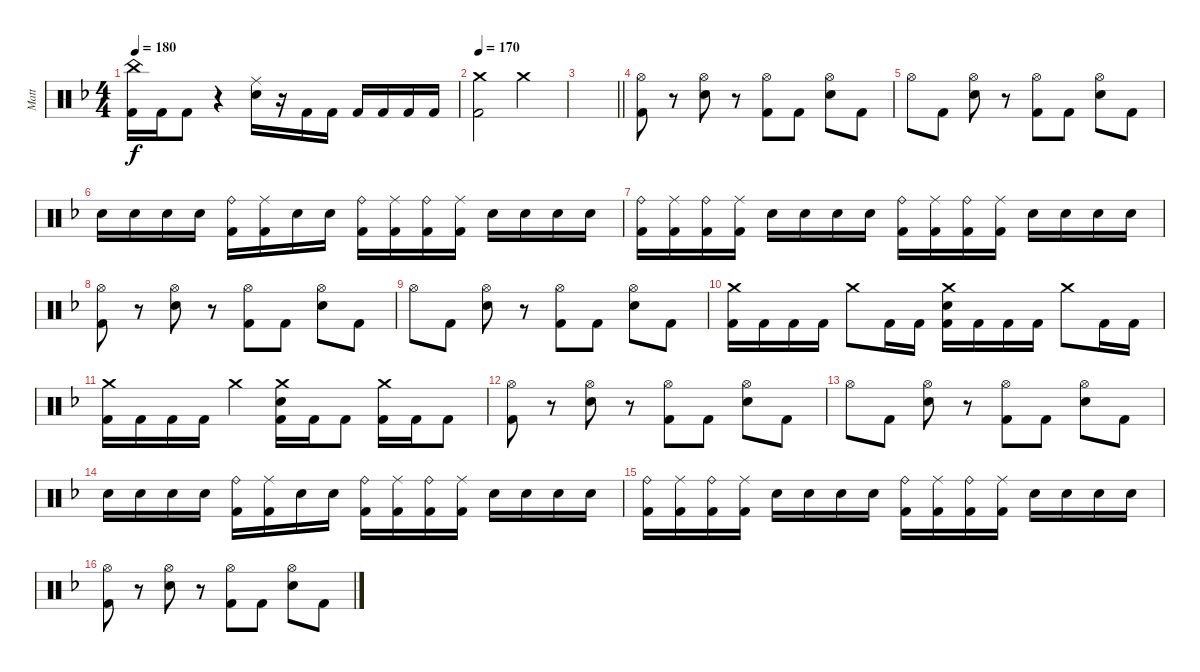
\track ("Matt" "Matt") {instrument percussion}
\staff {score}
\articulation defaults
\ts (4 4)
\tempo 180
\clef neutral
\ks f
("China (hit)" "Kick (hit) 2").16{dy f} "Kick (hit) 2".16 "Kick (hit) 2".8 r.4 ("Ride (middle)" "Electric Snare (hit)").16 r.16 "Kick (hit) 2".16 "Kick (hit) 2".16 "Kick (hit) 2".16 "Kick (hit) 2".16 "Kick (hit) 2".16 "Kick (hit) 2".16 |
\tempo 170
("Crash medium (hit)" "Kick (hit) 2").2 "Crash medium (hit)".2 |
\barLineRight lightlight
|
("Hi-Hat (open)" "Kick (hit) 2").8 r.8 ("Hi-Hat (open)" "Electric Snare (hit)").8 r.8 ("Hi-Hat (open)" "Kick (hit) 2").8 "Kick (hit) 2".8 ("Hi-Hat (open)" "Electric Snare (hit)").8 "Kick (hit) 2".8 |
"Hi-Hat (open)".8 "Kick (hit) 2".8 ("Hi-Hat (open)" "Electric Snare (hit)").8 r.8 ("Hi-Hat (open)" "Kick (hit) 2").8 "Kick (hit) 2".8 ("Hi-Hat (open)" "Electric Snare (hit)").8 "Kick (hit) 2".8 |
"Electric Snare (hit)".16 "Electric Snare (hit)".16 "Electric Snare (hit)".16 "Electric Snare (hit)".16 ("Ride (bell)" "Kick (hit) 2").16 ("Ride (middle)" "Kick (hit) 2").16 "Electric Snare (hit)".16 "Electric Snare (hit)".16 ("Ride (bell)" "Kick (hit) 2").16 ("Ride (middle)" "Kick (hit) 2").16 ("Ride (bell)" "Kick (hit) 2").16 ("Ride (middle)" "Kick (hit) 2").16 "Electric Snare (hit)".16 "Electric Snare (hit)".16 "Electric Snare (hit)".16 "Electric Snare (hit)".16 |
("Ride (bell)" "Kick (hit) 2").16 ("Ride (middle)" "Kick (hit) 2").16 ("Ride (bell)" "Kick (hit) 2").16 ("Ride (middle)" "Kick (hit) 2").16 "Electric Snare (hit)".16 "Electric Snare (hit)".16 "Electric Snare (hit)".16 "Electric Snare (hit)".16 ("Ride (bell)" "Kick (hit) 2").16 ("Ride (middle)" "Kick (hit) 2").16 ("Ride (bell)" "Kick (hit) 2").16 ("Ride (middle)" "Kick (hit) 2").16 "Electric Snare (hit)".16 "Electric Snare (hit)".16 "Electric Snare (hit)".16 "Electric Snare (hit)".16 |
("Hi-Hat (open)" "Kick (hit) 2").8 r.8 ("Hi-Hat (open)" "Electric Snare (hit)").8 r.8 ("Hi-Hat (open)" "Kick (hit) 2").8 "Kick (hit) 2".8 ("Hi-Hat (open)" "Electric Snare (hit)").8 "Kick (hit) 2".8 |
"Hi-Hat (open)".8 "Kick (hit) 2".8 ("Hi-Hat (open)" "Electric Snare (hit)").8 r.8 ("Hi-Hat (open)" "Kick (hit) 2").8 "Kick (hit) 2".8 ("Hi-Hat (open)" "Electric Snare (hit)").8 "Kick (hit) 2".8 |
("Crash medium (hit)" "Kick (hit) 2").16 "Kick (hit) 2".16 "Kick (hit) 2".16 "Kick (hit) 2".16 "Crash medium (hit)".8 "Kick (hit) 2".16 "Kick (hit) 2".16 ("Crash medium (hit)" "Electric Snare (hit)" "Kick (hit) 2").16 "Kick (hit) 2".16 "Kick (hit) 2".16 "Kick (hit) 2".16 "Crash medium (hit)".8 "Kick (hit) 2".16 "Kick (hit) 2".16 |
("Crash medium (hit)" "Kick (hit) 2").16 "Kick (hit) 2".16 "Kick (hit) 2".16 "Kick (hit) 2".16 "Crash medium (hit)".4 ("Crash medium (hit)" "Electric Snare (hit)" "Kick (hit) 2").16 "Kick (hit) 2".16 "Kick (hit) 2".8 ("Crash medium (hit)" "Kick (hit) 2").16 "Kick (hit) 2".16 "Kick (hit) 2".8 |
("Hi-Hat (open)" "Kick (hit) 2").8 r.8 ("Hi-Hat (open)" "Electric Snare (hit)").8 r.8 ("Hi-Hat (open)" "Kick (hit) 2").8 "Kick (hit) 2".8 ("Hi-Hat (open)" "Electric Snare (hit)").8 "Kick (hit) 2".8 |
"Hi-Hat (open)".8 "Kick (hit) 2".8 ("Hi-Hat (open)" "Electric Snare (hit)").8 r.8 ("Hi-Hat (open)" "Kick (hit) 2").8 "Kick (hit) 2".8 ("Hi-Hat (open)" "Electric Snare (hit)").8 "Kick (hit) 2".8 |
"Electric Snare (hit)".16 "Electric Snare (hit)".16 "Electric Snare (hit)".16 "Electric Snare (hit)".16 ("Ride (bell)" "Kick (hit) 2").16 ("Ride (middle)" "Kick (hit) 2").16 "Electric Snare (hit)".16 "Electric Snare (hit)".16 ("Ride (bell)" "Kick (hit) 2").16 ("Ride (middle)" "Kick (hit) 2").16 ("Ride (bell)" "Kick (hit) 2").16 ("Ride (middle)" "Kick (hit) 2").16 "Electric Snare (hit)".16 "Electric Snare (hit)".16 "Electric Snare (hit)".16 "Electric Snare (hit)".16 |
("Ride (bell)" "Kick (hit) 2").16 ("Ride (middle)" "Kick (hit) 2").16 ("Ride (bell)" "Kick (hit) 2").16 ("Ride (middle)" "Kick (hit) 2").16 "Electric Snare (hit)".16 "Electric Snare (hit)".16 "Electric Snare (hit)".16 "Electric Snare (hit)".16 ("Ride (bell)" "Kick (hit) 2").16 ("Ride (middle)" "Kick (hit) 2").16 ("Ride (bell)" "Kick (hit) 2").16 ("Ride (middle)" "Kick (hit) 2").16 "Electric Snare (hit)".16 "Electric Snare (hit)".16 "Electric Snare (hit)".16 "Electric Snare (hit)".16 |
("Hi-Hat (open)" "Kick (hit) 2").8 r.8 ("Hi-Hat (open)" "Electric Snare (hit)").8 r.8 ("Hi-Hat (open)" "Kick (hit) 2").8 "Kick (hit) 2".8 ("Hi-Hat (open)" "Electric Snare (hit)").8 "Kick (hit) 2".8
